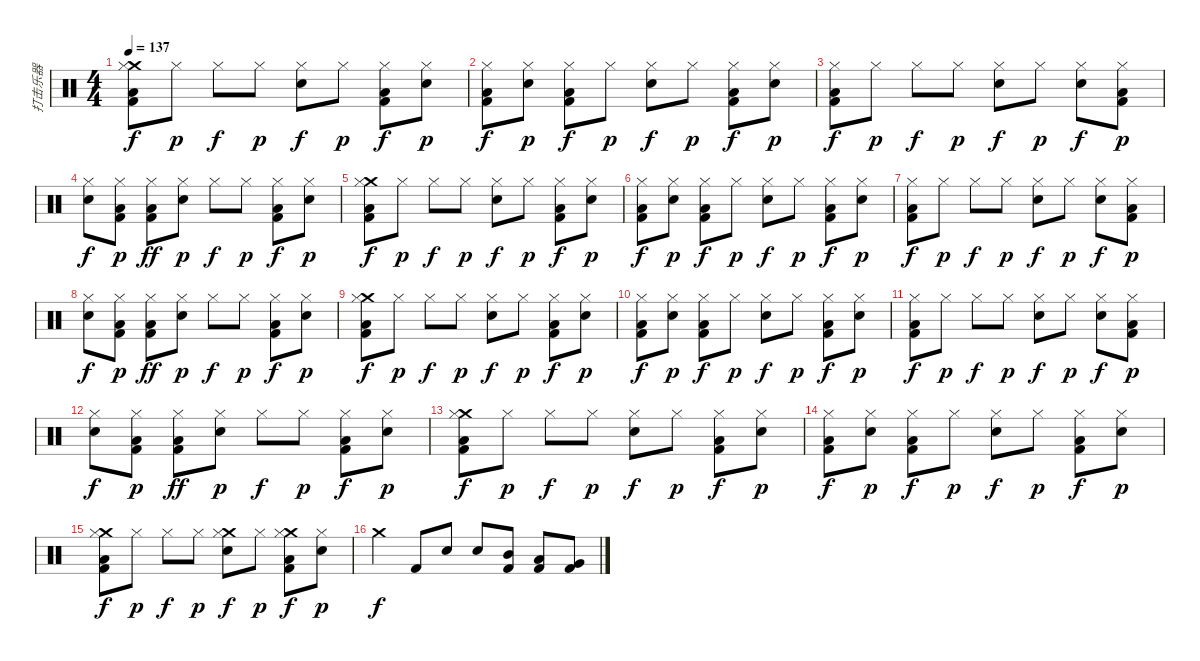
\track ("打击乐器" "打击乐器") {instrument percussion}
\staff {score}
\articulation defaults
\ts (4 4)
\tempo 137
\clef neutral
\ks c
("Low Floor Tom (hit)" "Kick (hit) 2" "Crash medium (hit)" "Hi-Hat (closed)").8{dy f} "Hi-Hat (closed)".8{dy p} "Hi-Hat (closed)".8{dy f} "Hi-Hat (closed)".8{dy p} ("Electric Snare (hit)" "Hi-Hat (closed)").8{dy f} "Hi-Hat (closed)".8{dy p} ("Low Floor Tom (hit)" "Kick (hit) 2" "Hi-Hat (closed)").8{dy f} ("Electric Snare (hit)" "Hi-Hat (closed)").8{dy p} |
("Low Floor Tom (hit)" "Kick (hit) 2" "Hi-Hat (closed)").8{dy f} ("Electric Snare (hit)" "Hi-Hat (closed)").8{dy p} ("Low Floor Tom (hit)" "Kick (hit) 2" "Hi-Hat (closed)").8{dy f} "Hi-Hat (closed)".8{dy p} ("Electric Snare (hit)" "Hi-Hat (closed)").8{dy f} "Hi-Hat (closed)".8{dy p} ("Low Floor Tom (hit)" "Kick (hit) 2" "Hi-Hat (closed)").8{dy f} ("Electric Snare (hit)" "Hi-Hat (closed)").8{dy p} |
("Low Floor Tom (hit)" "Kick (hit) 2" "Hi-Hat (closed)").8{dy f} "Hi-Hat (closed)".8{dy p} "Hi-Hat (closed)".8{dy f} "Hi-Hat (closed)".8{dy p} ("Electric Snare (hit)" "Hi-Hat (closed)").8{dy f} "Hi-Hat (closed)".8{dy p} ("Electric Snare (hit)" "Hi-Hat (closed)").8{dy f} ("Low Floor Tom (hit)" "Kick (hit) 2" "Hi-Hat (closed)").8{dy p} |
("Electric Snare (hit)" "Hi-Hat (closed)").8{dy f} ("Low Floor Tom (hit)" "Kick (hit) 2" "Hi-Hat (closed)").8{dy p} ("Low Floor Tom (hit)" "Kick (hit) 2" "Hi-Hat (closed)").8{dy ff} ("Electric Snare (hit)" "Hi-Hat (closed)").8{dy p} "Hi-Hat (closed)".8{dy f} "Hi-Hat (closed)".8{dy p} ("Low Floor Tom (hit)" "Kick (hit) 2" "Hi-Hat (closed)").8{dy f} ("Electric Snare (hit)" "Hi-Hat (closed)").8{dy p} |
("Low Floor Tom (hit)" "Kick (hit) 2" "Crash medium (hit)" "Hi-Hat (closed)").8{dy f} "Hi-Hat (closed)".8{dy p} "Hi-Hat (closed)".8{dy f} "Hi-Hat (closed)".8{dy p} ("Electric Snare (hit)" "Hi-Hat (closed)").8{dy f} "Hi-Hat (closed)".8{dy p} ("Low Floor Tom (hit)" "Kick (hit) 2" "Hi-Hat (closed)").8{dy f} ("Electric Snare (hit)" "Hi-Hat (closed)").8{dy p} |
("Low Floor Tom (hit)" "Kick (hit) 2" "Hi-Hat (closed)").8{dy f} ("Electric Snare (hit)" "Hi-Hat (closed)").8{dy p} ("Low Floor Tom (hit)" "Kick (hit) 2" "Hi-Hat (closed)").8{dy f} "Hi-Hat (closed)".8{dy p} ("Electric Snare (hit)" "Hi-Hat (closed)").8{dy f} "Hi-Hat (closed)".8{dy p} ("Low Floor Tom (hit)" "Kick (hit) 2" "Hi-Hat (closed)").8{dy f} ("Electric Snare (hit)" "Hi-Hat (closed)").8{dy p} |
("Low Floor Tom (hit)" "Kick (hit) 2" "Hi-Hat (closed)").8{dy f} "Hi-Hat (closed)".8{dy p} "Hi-Hat (closed)".8{dy f} "Hi-Hat (closed)".8{dy p} ("Electric Snare (hit)" "Hi-Hat (closed)").8{dy f} "Hi-Hat (closed)".8{dy p} ("Electric Snare (hit)" "Hi-Hat (closed)").8{dy f} ("Low Floor Tom (hit)" "Kick (hit) 2" "Hi-Hat (closed)").8{dy p} |
("Electric Snare (hit)" "Hi-Hat (closed)").8{dy f} ("Low Floor Tom (hit)" "Kick (hit) 2" "Hi-Hat (closed)").8{dy p} ("Low Floor Tom (hit)" "Kick (hit) 2" "Hi-Hat (closed)").8{dy ff} ("Electric Snare (hit)" "Hi-Hat (closed)").8{dy p} "Hi-Hat (closed)".8{dy f} "Hi-Hat (closed)".8{dy p} ("Low Floor Tom (hit)" "Kick (hit) 2" "Hi-Hat (closed)").8{dy f} ("Electric Snare (hit)" "Hi-Hat (closed)").8{dy p} |
("Low Floor Tom (hit)" "Kick (hit) 2" "Crash medium (hit)" "Hi-Hat (closed)").8{dy f} "Hi-Hat (closed)".8{dy p} "Hi-Hat (closed)".8{dy f} "Hi-Hat (closed)".8{dy p} ("Electric Snare (hit)" "Hi-Hat (closed)").8{dy f} "Hi-Hat (closed)".8{dy p} ("Low Floor Tom (hit)" "Kick (hit) 2" "Hi-Hat (closed)").8{dy f} ("Electric Snare (hit)" "Hi-Hat (closed)").8{dy p} |
("Low Floor Tom (hit)" "Kick (hit) 2" "Hi-Hat (closed)").8{dy f} ("Electric Snare (hit)" "Hi-Hat (closed)").8{dy p} ("Low Floor Tom (hit)" "Kick (hit) 2" "Hi-Hat (closed)").8{dy f} "Hi-Hat (closed)".8{dy p} ("Electric Snare (hit)" "Hi-Hat (closed)").8{dy f} "Hi-Hat (closed)".8{dy p} ("Low Floor Tom (hit)" "Kick (hit) 2" "Hi-Hat (closed)").8{dy f} ("Electric Snare (hit)" "Hi-Hat (closed)").8{dy p} |
("Low Floor Tom (hit)" "Kick (hit) 2" "Hi-Hat (closed)").8{dy f} "Hi-Hat (closed)".8{dy p} "Hi-Hat (closed)".8{dy f} "Hi-Hat (closed)".8{dy p} ("Electric Snare (hit)" "Hi-Hat (closed)").8{dy f} "Hi-Hat (closed)".8{dy p} ("Electric Snare (hit)" "Hi-Hat (closed)").8{dy f} ("Low Floor Tom (hit)" "Kick (hit) 2" "Hi-Hat (closed)").8{dy p} |
("Electric Snare (hit)" "Hi-Hat (closed)").8{dy f} ("Low Floor Tom (hit)" "Kick (hit) 2" "Hi-Hat (closed)").8{dy p} ("Low Floor Tom (hit)" "Kick (hit) 2" "Hi-Hat (closed)").8{dy ff} ("Electric Snare (hit)" "Hi-Hat (closed)").8{dy p} "Hi-Hat (closed)".8{dy f} "Hi-Hat (closed)".8{dy p} ("Low Floor Tom (hit)" "Kick (hit) 2" "Hi-Hat (closed)").8{dy f} ("Electric Snare (hit)" "Hi-Hat (closed)").8{dy p} |
("Low Floor Tom (hit)" "Kick (hit) 2" "Crash medium (hit)" "Hi-Hat (closed)").8{dy f} "Hi-Hat (closed)".8{dy p} "Hi-Hat (closed)".8{dy f} "Hi-Hat (closed)".8{dy p} ("Electric Snare (hit)" "Hi-Hat (closed)").8{dy f} "Hi-Hat (closed)".8{dy p} ("Low Floor Tom (hit)" "Kick (hit) 2" "Hi-Hat (closed)").8{dy f} ("Electric Snare (hit)" "Hi-Hat (closed)").8{dy p} |
("Low Floor Tom (hit)" "Kick (hit) 2" "Hi-Hat (closed)").8{dy f} ("Electric Snare (hit)" "Hi-Hat (closed)").8{dy p} ("Low Floor Tom (hit)" "Kick (hit) 2" "Hi-Hat (closed)").8{dy f} "Hi-Hat (closed)".8{dy p} ("Electric Snare (hit)" "Hi-Hat (closed)").8{dy f} "Hi-Hat (closed)".8{dy p} ("Low Floor Tom (hit)" "Kick (hit) 2" "Hi-Hat (closed)").8{dy f} ("Electric Snare (hit)" "Hi-Hat (closed)").8{dy p} |
("Low Floor Tom (hit)" "Kick (hit) 2" "Crash medium (hit)" "Hi-Hat (closed)").8{dy f} "Hi-Hat (closed)".8{dy p} "Hi-Hat (closed)".8{dy f} "Hi-Hat (closed)".8{dy p} ("Crash medium (hit)" "Electric Snare (hit)" "Hi-Hat (closed)").8{dy f} "Hi-Hat (closed)".8{dy p} ("Low Floor Tom (hit)" "Kick (hit) 2" "Crash medium (hit)" "Hi-Hat (closed)").8{dy f} ("Electric Snare (hit)" "Hi-Hat (closed)").8{dy p} |
"Crash medium (hit)".4{dy f} "Kick (hit) 2".8 "Electric Snare (hit)".8 "Electric Snare (hit)".8 ("Mid Tom (hit)" "Kick (hit) 2").8 ("Low Tom (hit)" "Kick (hit) 2").8 ("Very Low Tom (hit)" "Kick (hit) 2").8
